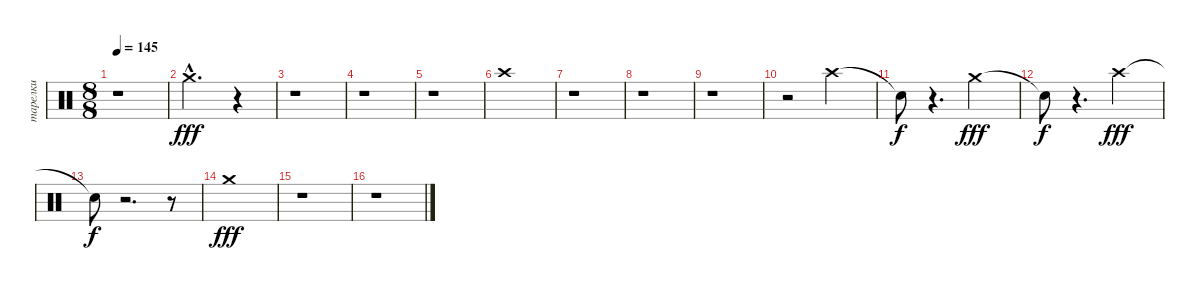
\track ("тарелки" "тарелки") {instrument percussion}
\staff {score}
\articulation defaults
\ts (8 8)
\tempo 145
\clef neutral
\ks c
r.1{dy fff} |
"Crash medium (hit)"{hac}.2{d} r.4 |
r.1 |
r.1 |
r.1 |
"Crash high (hit)".1 |
r.1 |
r.1 |
r.1 |
r.2 "Crash high (hit)".2 |
"Snare (hit)"{t}.8{dy f} r.4{d} "Crash medium (hit)".2{dy fff} |
"Snare (hit)"{t}.8{dy f} r.4{d} "Crash high (hit)".2{dy fff} |
"Snare (hit)"{t}.8{dy f} r.2{d} r.8 |
"Crash medium (hit)".1{dy fff} |
r.1 |
r.1
